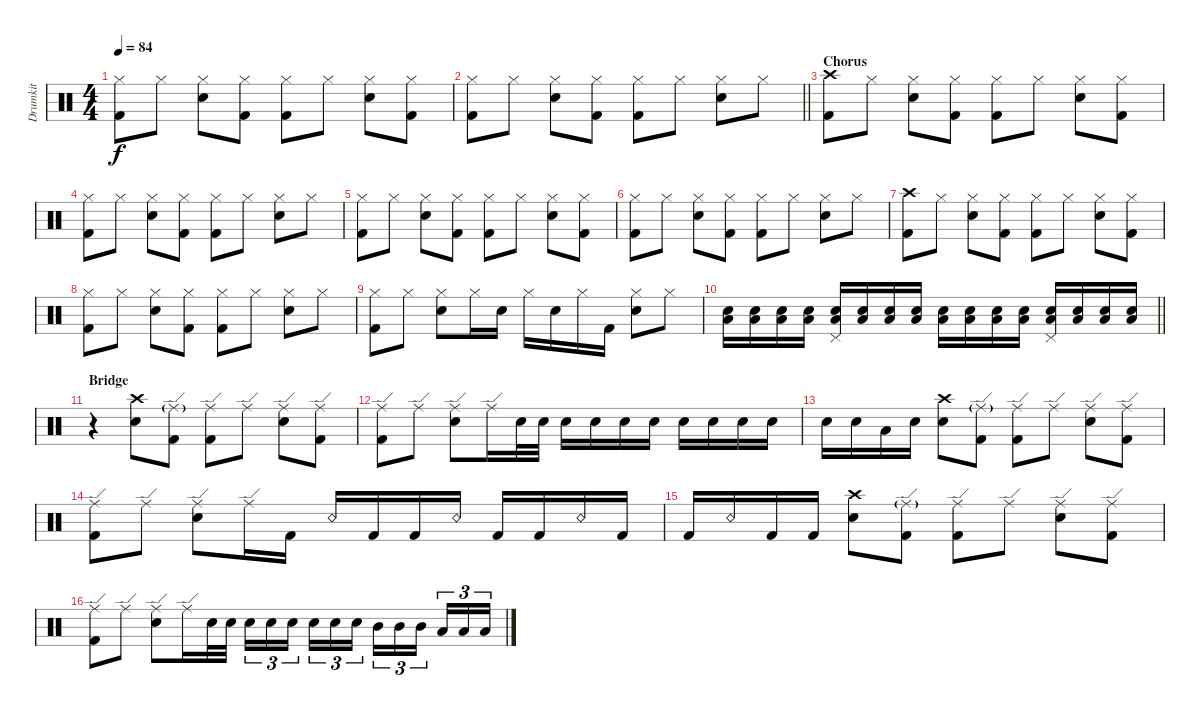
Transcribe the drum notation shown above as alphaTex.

\track ("Drumkit" "Drumkit") {instrument percussion}
\staff {score}
\articulation defaults
\ts (4 4)
\tempo 84
\clef neutral
\ks c
("Kick (hit) 2" "Hi-Hat (closed)").8{dy f} "Hi-Hat (closed)".8 ("Hi-Hat (closed)" "Snare (hit) 2").8 ("Hi-Hat (closed)" "Kick (hit) 2").8 ("Kick (hit) 2" "Hi-Hat (closed)").8 "Hi-Hat (closed)".8 ("Hi-Hat (closed)" "Snare (hit) 2").8 ("Hi-Hat (closed)" "Kick (hit) 2").8 |
\barLineRight lightlight
("Kick (hit) 2" "Hi-Hat (closed)").8 "Hi-Hat (closed)".8 ("Hi-Hat (closed)" "Snare (hit) 2").8 ("Hi-Hat (closed)" "Kick (hit) 2").8 ("Kick (hit) 2" "Hi-Hat (closed)").8 "Hi-Hat (closed)".8 ("Hi-Hat (closed)" "Snare (hit) 2").8 "Hi-Hat (closed)".8 |
\section ("" "Chorus")
("Kick (hit) 2" "Crash high (hit)").8 "Hi-Hat (closed)".8 ("Hi-Hat (closed)" "Snare (hit) 2").8 ("Hi-Hat (closed)" "Kick (hit) 2").8 ("Kick (hit) 2" "Hi-Hat (closed)").8 "Hi-Hat (closed)".8 ("Hi-Hat (closed)" "Snare (hit) 2").8 ("Hi-Hat (closed)" "Kick (hit) 2").8 |
("Kick (hit) 2" "Hi-Hat (closed)").8 "Hi-Hat (closed)".8 ("Hi-Hat (closed)" "Snare (hit) 2").8 ("Hi-Hat (closed)" "Kick (hit) 2").8 ("Kick (hit) 2" "Hi-Hat (closed)").8 "Hi-Hat (closed)".8 ("Hi-Hat (closed)" "Snare (hit) 2").8 "Hi-Hat (closed)".8 |
("Kick (hit) 2" "Hi-Hat (closed)").8 "Hi-Hat (closed)".8 ("Hi-Hat (closed)" "Snare (hit) 2").8 ("Hi-Hat (closed)" "Kick (hit) 2").8 ("Kick (hit) 2" "Hi-Hat (closed)").8 "Hi-Hat (closed)".8 ("Hi-Hat (closed)" "Snare (hit) 2").8 ("Hi-Hat (closed)" "Kick (hit) 2").8 |
("Kick (hit) 2" "Hi-Hat (closed)").8 "Hi-Hat (closed)".8 ("Hi-Hat (closed)" "Snare (hit) 2").8 ("Hi-Hat (closed)" "Kick (hit) 2").8 ("Kick (hit) 2" "Hi-Hat (closed)").8 "Hi-Hat (closed)".8 ("Hi-Hat (closed)" "Snare (hit) 2").8 "Hi-Hat (closed)".8 |
("Kick (hit) 2" "Crash high (hit)").8 "Hi-Hat (closed)".8 ("Hi-Hat (closed)" "Snare (hit) 2").8 ("Hi-Hat (closed)" "Kick (hit) 2").8 ("Kick (hit) 2" "Hi-Hat (closed)").8 "Hi-Hat (closed)".8 ("Hi-Hat (closed)" "Snare (hit) 2").8 ("Hi-Hat (closed)" "Kick (hit) 2").8 |
("Kick (hit) 2" "Hi-Hat (closed)").8 "Hi-Hat (closed)".8 ("Hi-Hat (closed)" "Snare (hit) 2").8 ("Hi-Hat (closed)" "Kick (hit) 2").8 ("Kick (hit) 2" "Hi-Hat (closed)").8 "Hi-Hat (closed)".8 ("Hi-Hat (closed)" "Snare (hit) 2").8 "Hi-Hat (closed)".8 |
("Kick (hit) 2" "Hi-Hat (closed)").8 "Hi-Hat (closed)".8 ("Hi-Hat (closed)" "Snare (hit) 2").8 "Hi-Hat (closed)".16 "Snare (hit) 2".16 "Hi-Hat (closed)".16 "Snare (hit) 2".16 "Hi-Hat (closed)".16 "Kick (hit) 2".16 ("Snare (hit) 2" "Hi-Hat (closed)").8 "Hi-Hat (closed)".8 |
\barLineRight lightlight
("Snare (hit) 2" "Low Tom (hit)").16 ("Snare (hit) 2" "Low Tom (hit)").16 ("Snare (hit) 2" "Low Tom (hit)").16 ("Snare (hit) 2" "Low Tom (hit)").16 ("Snare (hit) 2" "Low Tom (hit)" "Pedal Hi-Hat (hit)").16 ("Snare (hit) 2" "Low Tom (hit)").16 ("Snare (hit) 2" "Low Tom (hit)").16 ("Snare (hit) 2" "Low Tom (hit)").16 ("Snare (hit) 2" "Low Tom (hit)").16 ("Snare (hit) 2" "Low Tom (hit)").16 ("Snare (hit) 2" "Low Tom (hit)").16 ("Snare (hit) 2" "Low Tom (hit)").16 ("Snare (hit) 2" "Low Tom (hit)" "Pedal Hi-Hat (hit)").16 ("Snare (hit) 2" "Low Tom (hit)").16 ("Snare (hit) 2" "Low Tom (hit)").16 ("Snare (hit) 2" "Low Tom (hit)").16 |
\section ("" "Bridge")
r.4 ("Crash high (hit)" "Snare (hit) 2").8 ("Kick (hit) 2" "Ride (edge)"{g}).8 ("Kick (hit) 2" "Ride (edge)").8 "Ride (edge)".8 ("Ride (edge)" "Snare (hit) 2").8 ("Ride (edge)" "Kick (hit) 2").8 |
("Kick (hit) 2" "Ride (edge)").8 "Ride (edge)".8 ("Ride (edge)" "Snare (hit) 2").8 "Ride (edge)".16 "Snare (hit) 2".32 "Snare (hit) 2".32 "Snare (hit) 2".16 "Snare (hit) 2".16 "Snare (hit) 2".16 "Snare (hit) 2".16 "Snare (hit) 2".16 "Snare (hit) 2".16 "Snare (hit) 2".16 "Snare (hit) 2".16 |
"Snare (hit) 2".16 "Snare (hit) 2".16 "Low Tom (hit)".16 "Snare (hit) 2".16 ("Crash high (hit)" "Snare (hit) 2").8 ("Kick (hit) 2" "Ride (edge)"{g}).8 ("Kick (hit) 2" "Ride (edge)").8 "Ride (edge)".8 ("Ride (edge)" "Snare (hit) 2").8 ("Ride (edge)" "Kick (hit) 2").8 |
("Kick (hit) 2" "Ride (edge)").8 "Ride (edge)".8 ("Ride (edge)" "Snare (hit) 2").8 "Ride (edge)".16 "Kick (hit) 2".16 "Snare (rim shot)".16 "Kick (hit) 2".16 "Kick (hit) 2".16 "Snare (rim shot)".16 "Kick (hit) 2".16 "Kick (hit) 2".16 "Snare (rim shot)".16 "Kick (hit) 2".16 |
"Kick (hit) 2".16 "Snare (rim shot)".16 "Kick (hit) 2".16 "Kick (hit) 2".16 ("Snare (hit) 2" "Crash high (hit)").8 ("Kick (hit) 2" "Ride (edge)"{g}).8 ("Kick (hit) 2" "Ride (edge)").8 "Ride (edge)".8 ("Ride (edge)" "Snare (hit) 2").8 ("Ride (edge)" "Kick (hit) 2").8 |
("Kick (hit) 2" "Ride (edge)").8 "Ride (edge)".8 ("Ride (edge)" "Snare (hit) 2").8 "Ride (edge)".16 "Snare (hit) 2".32 "Snare (hit) 2".32 "Snare (hit) 2".16{tu (3 2)} "Snare (hit) 2".16{tu (3 2)} "Snare (hit) 2".16{tu (3 2)} "Snare (hit) 2".16{tu (3 2)} "Snare (hit) 2".16{tu (3 2)} "Snare (hit) 2".16{tu (3 2)} "Mid Tom (hit)".16{tu (3 2)} "Mid Tom (hit)".16{tu (3 2)} "Mid Tom (hit)".16{tu (3 2)} "Low Tom (hit)".16{tu (3 2)} "Low Tom (hit)".16{tu (3 2)} "Low Tom (hit)".16{tu (3 2)}
